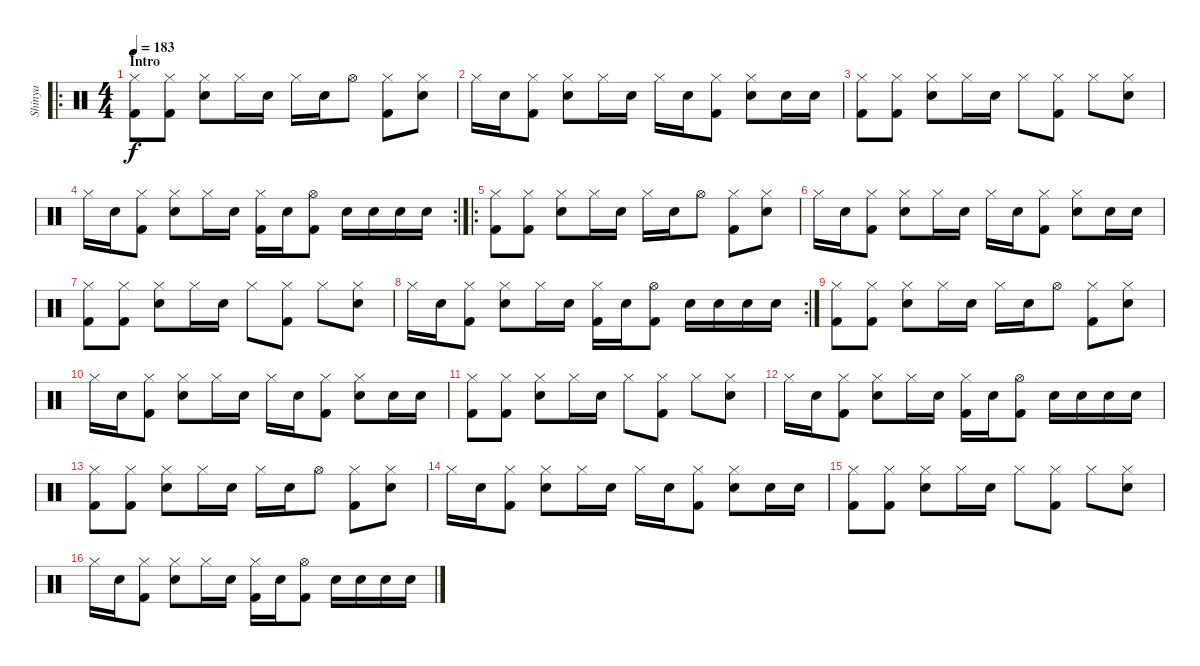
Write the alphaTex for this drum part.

\track ("Shinya" "Shinya") {instrument percussion}
\staff {score}
\articulation defaults
\ro
\ts (4 4)
\section ("" "Intro")
\tempo 183
\clef neutral
\ks c
("Hi-Hat (closed)" "Kick (hit) 2").8{dy f} ("Hi-Hat (closed)" "Kick (hit) 2").8 ("Hi-Hat (closed)" "Snare (hit) 2").8 "Hi-Hat (closed)".16 "Snare (hit) 2".16 "Hi-Hat (closed)".16 "Snare (hit) 2".16 "Hi-Hat (open)".8 ("Hi-Hat (closed)" "Kick (hit) 2").8 ("Hi-Hat (closed)" "Snare (hit) 2").8 |
"Hi-Hat (closed)".16 "Snare (hit) 2".16 ("Hi-Hat (closed)" "Kick (hit) 2").8 ("Hi-Hat (closed)" "Snare (hit) 2").8 "Hi-Hat (closed)".16 "Snare (hit) 2".16 "Hi-Hat (closed)".16 "Snare (hit) 2".16 ("Hi-Hat (closed)" "Kick (hit) 2").8 ("Hi-Hat (closed)" "Snare (hit) 2").8 "Snare (hit) 2".16 "Snare (hit) 2".16 |
("Hi-Hat (closed)" "Kick (hit) 2").8 ("Hi-Hat (closed)" "Kick (hit) 2").8 ("Hi-Hat (closed)" "Snare (hit) 2").8 "Hi-Hat (closed)".16 "Snare (hit) 2".16 "Hi-Hat (closed)".8 ("Hi-Hat (closed)" "Kick (hit) 2").8 "Hi-Hat (closed)".8 ("Hi-Hat (closed)" "Snare (hit) 2").8 |
\rc 2 "Hi-Hat (closed)".16 "Snare (hit) 2".16
("Hi-Hat (closed)" "Kick (hit) 2").8 ("Hi-Hat (closed)" "Snare (hit) 2").8 "Hi-Hat (closed)".16 "Snare (hit) 2".16 ("Hi-Hat (closed)" "Kick (hit) 2").16 "Snare (hit) 2".16 ("Hi-Hat (open)" "Kick (hit) 2").8 "Snare (hit) 2".16 "Snare (hit) 2".16 "Snare (hit) 2".16 "Snare (hit) 2".16 |
\ro
("Hi-Hat (closed)" "Kick (hit) 2").8 ("Hi-Hat (closed)" "Kick (hit) 2").8 ("Hi-Hat (closed)" "Snare (hit) 2").8 "Hi-Hat (closed)".16 "Snare (hit) 2".16 "Hi-Hat (closed)".16 "Snare (hit) 2".16 "Hi-Hat (open)".8 ("Hi-Hat (closed)" "Kick (hit) 2").8 ("Hi-Hat (closed)" "Snare (hit) 2").8 |
"Hi-Hat (closed)".16 "Snare (hit) 2".16 ("Hi-Hat (closed)" "Kick (hit) 2").8 ("Hi-Hat (closed)" "Snare (hit) 2").8 "Hi-Hat (closed)".16 "Snare (hit) 2".16 "Hi-Hat (closed)".16 "Snare (hit) 2".16 ("Hi-Hat (closed)" "Kick (hit) 2").8 ("Hi-Hat (closed)" "Snare (hit) 2").8 "Snare (hit) 2".16 "Snare (hit) 2".16 |
("Hi-Hat (closed)" "Kick (hit) 2").8 ("Hi-Hat (closed)" "Kick (hit) 2").8 ("Hi-Hat (closed)" "Snare (hit) 2").8 "Hi-Hat (closed)".16 "Snare (hit) 2".16 "Hi-Hat (closed)".8 ("Hi-Hat (closed)" "Kick (hit) 2").8 "Hi-Hat (closed)".8 ("Hi-Hat (closed)" "Snare (hit) 2").8 |
\rc 2 "Hi-Hat (closed)".16 "Snare (hit) 2".16
("Hi-Hat (closed)" "Kick (hit) 2").8 ("Hi-Hat (closed)" "Snare (hit) 2").8 "Hi-Hat (closed)".16 "Snare (hit) 2".16 ("Hi-Hat (closed)" "Kick (hit) 2").16 "Snare (hit) 2".16 ("Hi-Hat (open)" "Kick (hit) 2").8 "Snare (hit) 2".16 "Snare (hit) 2".16 "Snare (hit) 2".16 "Snare (hit) 2".16 |
("Hi-Hat (closed)" "Kick (hit) 2").8 ("Hi-Hat (closed)" "Kick (hit) 2").8 ("Hi-Hat (closed)" "Snare (hit) 2").8 "Hi-Hat (closed)".16 "Snare (hit) 2".16 "Hi-Hat (closed)".16 "Snare (hit) 2".16 "Hi-Hat (open)".8 ("Hi-Hat (closed)" "Kick (hit) 2").8 ("Hi-Hat (closed)" "Snare (hit) 2").8 |
"Hi-Hat (closed)".16 "Snare (hit) 2".16 ("Hi-Hat (closed)" "Kick (hit) 2").8 ("Hi-Hat (closed)" "Snare (hit) 2").8 "Hi-Hat (closed)".16 "Snare (hit) 2".16 "Hi-Hat (closed)".16 "Snare (hit) 2".16 ("Hi-Hat (closed)" "Kick (hit) 2").8 ("Hi-Hat (closed)" "Snare (hit) 2").8 "Snare (hit) 2".16 "Snare (hit) 2".16 |
("Hi-Hat (closed)" "Kick (hit) 2").8 ("Hi-Hat (closed)" "Kick (hit) 2").8 ("Hi-Hat (closed)" "Snare (hit) 2").8 "Hi-Hat (closed)".16 "Snare (hit) 2".16 "Hi-Hat (closed)".8 ("Hi-Hat (closed)" "Kick (hit) 2").8 "Hi-Hat (closed)".8 ("Hi-Hat (closed)" "Snare (hit) 2").8 |
"Hi-Hat (closed)".16 "Snare (hit) 2".16 ("Hi-Hat (closed)" "Kick (hit) 2").8 ("Hi-Hat (closed)" "Snare (hit) 2").8 "Hi-Hat (closed)".16 "Snare (hit) 2".16 ("Hi-Hat (closed)" "Kick (hit) 2").16 "Snare (hit) 2".16 ("Hi-Hat (open)" "Kick (hit) 2").8 "Snare (hit) 2".16 "Snare (hit) 2".16 "Snare (hit) 2".16 "Snare (hit) 2".16 |
("Hi-Hat (closed)" "Kick (hit) 2").8 ("Hi-Hat (closed)" "Kick (hit) 2").8 ("Hi-Hat (closed)" "Snare (hit) 2").8 "Hi-Hat (closed)".16 "Snare (hit) 2".16 "Hi-Hat (closed)".16 "Snare (hit) 2".16 "Hi-Hat (open)".8 ("Hi-Hat (closed)" "Kick (hit) 2").8 ("Hi-Hat (closed)" "Snare (hit) 2").8 |
"Hi-Hat (closed)".16 "Snare (hit) 2".16 ("Hi-Hat (closed)" "Kick (hit) 2").8 ("Hi-Hat (closed)" "Snare (hit) 2").8 "Hi-Hat (closed)".16 "Snare (hit) 2".16 "Hi-Hat (closed)".16 "Snare (hit) 2".16 ("Hi-Hat (closed)" "Kick (hit) 2").8 ("Hi-Hat (closed)" "Snare (hit) 2").8 "Snare (hit) 2".16 "Snare (hit) 2".16 |
("Hi-Hat (closed)" "Kick (hit) 2").8 ("Hi-Hat (closed)" "Kick (hit) 2").8 ("Hi-Hat (closed)" "Snare (hit) 2").8 "Hi-Hat (closed)".16 "Snare (hit) 2".16 "Hi-Hat (closed)".8 ("Hi-Hat (closed)" "Kick (hit) 2").8 "Hi-Hat (closed)".8 ("Hi-Hat (closed)" "Snare (hit) 2").8 |
"Hi-Hat (closed)".16 "Snare (hit) 2".16 ("Hi-Hat (closed)" "Kick (hit) 2").8 ("Hi-Hat (closed)" "Snare (hit) 2").8 "Hi-Hat (closed)".16 "Snare (hit) 2".16 ("Hi-Hat (closed)" "Kick (hit) 2").16 "Snare (hit) 2".16 ("Hi-Hat (open)" "Kick (hit) 2").8 "Snare (hit) 2".16 "Snare (hit) 2".16 "Snare (hit) 2".16 "Snare (hit) 2".16
